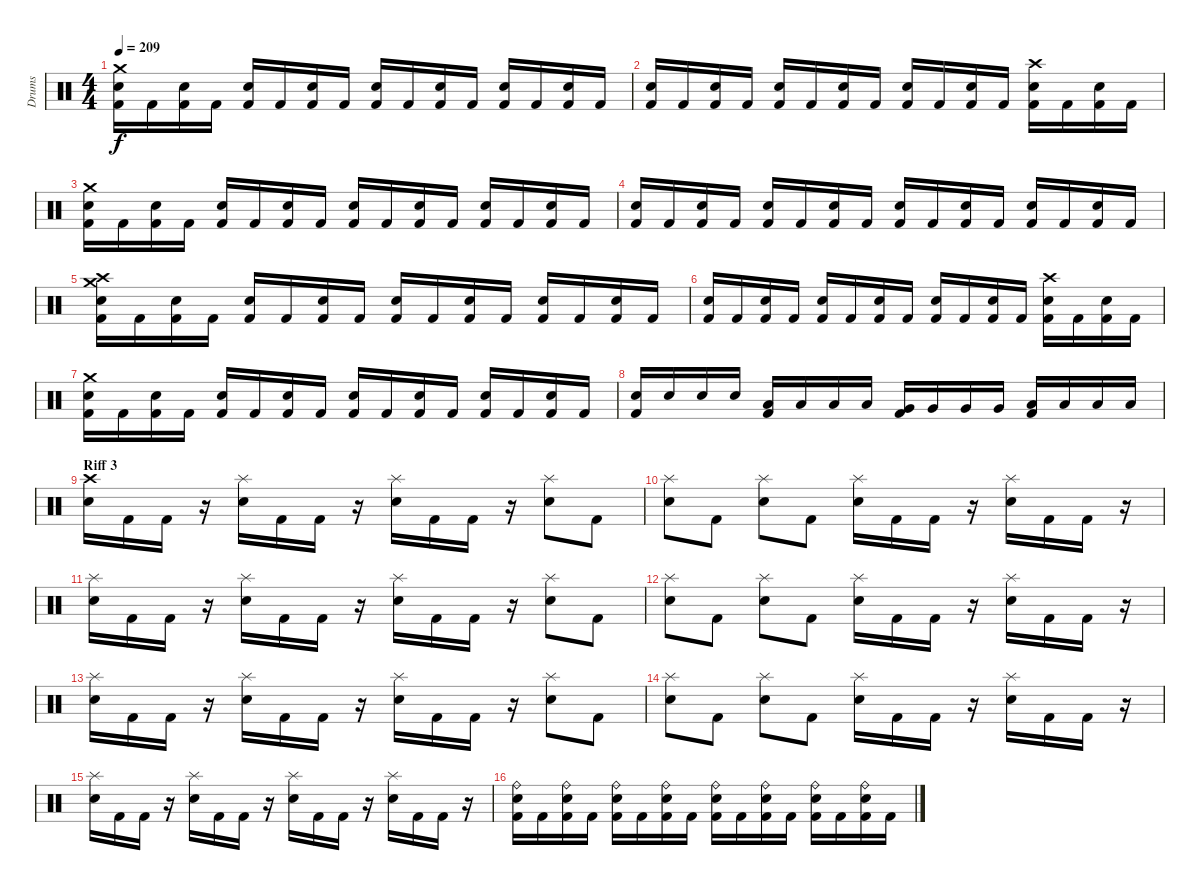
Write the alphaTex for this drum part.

\track ("Drums" "Drums") {instrument percussion}
\staff {score}
\articulation defaults
\ts (4 4)
\tempo 209
\clef neutral
\ks c
("Kick (hit) 2" "Snare (hit) 2" "Crash medium (hit)").16{dy f} "Kick (hit) 2".16 ("Kick (hit) 2" "Snare (hit) 2").16 "Kick (hit) 2".16 ("Kick (hit) 2" "Snare (hit) 2").16 "Kick (hit) 2".16 ("Kick (hit) 2" "Snare (hit) 2").16 "Kick (hit) 2".16 ("Kick (hit) 2" "Snare (hit) 2").16 "Kick (hit) 2".16 ("Kick (hit) 2" "Snare (hit) 2").16 "Kick (hit) 2".16 ("Kick (hit) 2" "Snare (hit) 2").16 "Kick (hit) 2".16 ("Kick (hit) 2" "Snare (hit) 2").16 "Kick (hit) 2".16 |
("Kick (hit) 2" "Snare (hit) 2").16 "Kick (hit) 2".16 ("Kick (hit) 2" "Snare (hit) 2").16 "Kick (hit) 2".16 ("Kick (hit) 2" "Snare (hit) 2").16 "Kick (hit) 2".16 ("Kick (hit) 2" "Snare (hit) 2").16 "Kick (hit) 2".16 ("Kick (hit) 2" "Snare (hit) 2").16 "Kick (hit) 2".16 ("Kick (hit) 2" "Snare (hit) 2").16 "Kick (hit) 2".16 ("Kick (hit) 2" "Snare (hit) 2" "Crash high (hit)").16 "Kick (hit) 2".16 ("Kick (hit) 2" "Snare (hit) 2").16 "Kick (hit) 2".16 |
("Kick (hit) 2" "Snare (hit) 2" "Crash medium (hit)").16 "Kick (hit) 2".16 ("Kick (hit) 2" "Snare (hit) 2").16 "Kick (hit) 2".16 ("Kick (hit) 2" "Snare (hit) 2").16 "Kick (hit) 2".16 ("Kick (hit) 2" "Snare (hit) 2").16 "Kick (hit) 2".16 ("Kick (hit) 2" "Snare (hit) 2").16 "Kick (hit) 2".16 ("Kick (hit) 2" "Snare (hit) 2").16 "Kick (hit) 2".16 ("Kick (hit) 2" "Snare (hit) 2").16 "Kick (hit) 2".16 ("Kick (hit) 2" "Snare (hit) 2").16 "Kick (hit) 2".16 |
("Kick (hit) 2" "Snare (hit) 2").16 "Kick (hit) 2".16 ("Kick (hit) 2" "Snare (hit) 2").16 "Kick (hit) 2".16 ("Kick (hit) 2" "Snare (hit) 2").16 "Kick (hit) 2".16 ("Kick (hit) 2" "Snare (hit) 2").16 "Kick (hit) 2".16 ("Kick (hit) 2" "Snare (hit) 2").16 "Kick (hit) 2".16 ("Kick (hit) 2" "Snare (hit) 2").16 "Kick (hit) 2".16 ("Kick (hit) 2" "Snare (hit) 2").16 "Kick (hit) 2".16 ("Kick (hit) 2" "Snare (hit) 2").16 "Kick (hit) 2".16 |
("Kick (hit) 2" "Snare (hit) 2" "Crash high (hit)" "Crash medium (hit)").16 "Kick (hit) 2".16 ("Kick (hit) 2" "Snare (hit) 2").16 "Kick (hit) 2".16 ("Kick (hit) 2" "Snare (hit) 2").16 "Kick (hit) 2".16 ("Kick (hit) 2" "Snare (hit) 2").16 "Kick (hit) 2".16 ("Kick (hit) 2" "Snare (hit) 2").16 "Kick (hit) 2".16 ("Kick (hit) 2" "Snare (hit) 2").16 "Kick (hit) 2".16 ("Kick (hit) 2" "Snare (hit) 2").16 "Kick (hit) 2".16 ("Kick (hit) 2" "Snare (hit) 2").16 "Kick (hit) 2".16 |
("Kick (hit) 2" "Snare (hit) 2").16 "Kick (hit) 2".16 ("Kick (hit) 2" "Snare (hit) 2").16 "Kick (hit) 2".16 ("Kick (hit) 2" "Snare (hit) 2").16 "Kick (hit) 2".16 ("Kick (hit) 2" "Snare (hit) 2").16 "Kick (hit) 2".16 ("Kick (hit) 2" "Snare (hit) 2").16 "Kick (hit) 2".16 ("Kick (hit) 2" "Snare (hit) 2").16 "Kick (hit) 2".16 ("Kick (hit) 2" "Snare (hit) 2" "Crash high (hit)").16 "Kick (hit) 2".16 ("Kick (hit) 2" "Snare (hit) 2").16 "Kick (hit) 2".16 |
("Kick (hit) 2" "Snare (hit) 2" "Crash medium (hit)").16 "Kick (hit) 2".16 ("Kick (hit) 2" "Snare (hit) 2").16 "Kick (hit) 2".16 ("Kick (hit) 2" "Snare (hit) 2").16 "Kick (hit) 2".16 ("Kick (hit) 2" "Snare (hit) 2").16 "Kick (hit) 2".16 ("Kick (hit) 2" "Snare (hit) 2").16 "Kick (hit) 2".16 ("Kick (hit) 2" "Snare (hit) 2").16 "Kick (hit) 2".16 ("Kick (hit) 2" "Snare (hit) 2").16 "Kick (hit) 2".16 ("Kick (hit) 2" "Snare (hit) 2").16 "Kick (hit) 2".16 |
("Kick (hit) 2" "Snare (hit) 2").16 "Snare (hit) 2".16 "Snare (hit) 2".16 "Snare (hit) 2".16 ("Kick (hit) 2" "Low Tom (hit)").16 "Low Tom (hit)".16 "Low Tom (hit)".16 "Low Tom (hit)".16 ("Kick (hit) 2" "Very Low Tom (hit)").16 "Very Low Tom (hit)".16 "Very Low Tom (hit)".16 "Very Low Tom (hit)".16 ("Kick (hit) 2" "Low Floor Tom (hit)").16 "Low Floor Tom (hit)".16 "Low Floor Tom (hit)".16 "Low Floor Tom (hit)".16 |
\section ("" "Riff 3")
("Snare (hit) 2" "Crash high (hit)").16 "Kick (hit) 2".16 "Kick (hit) 2".16 r.16 ("Snare (hit) 2" "Splash (hit)").16 "Kick (hit) 2".16 "Kick (hit) 2".16 r.16 ("Snare (hit) 2" "Splash (hit)").16 "Kick (hit) 2".16 "Kick (hit) 2".16 r.16 ("Snare (hit) 2" "Splash (hit)").8 "Kick (hit) 2".8 |
("Snare (hit) 2" "Splash (hit)").8 "Kick (hit) 2".8 ("Snare (hit) 2" "Splash (hit)").8 "Kick (hit) 2".8 ("Snare (hit) 2" "Splash (hit)").16 "Kick (hit) 2".16 "Kick (hit) 2".16 r.16 ("Snare (hit) 2" "Splash (hit)").16 "Kick (hit) 2".16 "Kick (hit) 2".16 r.16 |
("Snare (hit) 2" "Splash (hit)").16 "Kick (hit) 2".16 "Kick (hit) 2".16 r.16 ("Snare (hit) 2" "Splash (hit)").16 "Kick (hit) 2".16 "Kick (hit) 2".16 r.16 ("Snare (hit) 2" "Splash (hit)").16 "Kick (hit) 2".16 "Kick (hit) 2".16 r.16 ("Snare (hit) 2" "Splash (hit)").8 "Kick (hit) 2".8 |
("Snare (hit) 2" "Splash (hit)").8 "Kick (hit) 2".8 ("Snare (hit) 2" "Splash (hit)").8 "Kick (hit) 2".8 ("Snare (hit) 2" "Splash (hit)").16 "Kick (hit) 2".16 "Kick (hit) 2".16 r.16 ("Snare (hit) 2" "Splash (hit)").16 "Kick (hit) 2".16 "Kick (hit) 2".16 r.16 |
("Snare (hit) 2" "Splash (hit)").16 "Kick (hit) 2".16 "Kick (hit) 2".16 r.16 ("Snare (hit) 2" "Splash (hit)").16 "Kick (hit) 2".16 "Kick (hit) 2".16 r.16 ("Snare (hit) 2" "Splash (hit)").16 "Kick (hit) 2".16 "Kick (hit) 2".16 r.16 ("Snare (hit) 2" "Splash (hit)").8 "Kick (hit) 2".8 |
("Snare (hit) 2" "Splash (hit)").8 "Kick (hit) 2".8 ("Snare (hit) 2" "Splash (hit)").8 "Kick (hit) 2".8 ("Snare (hit) 2" "Splash (hit)").16 "Kick (hit) 2".16 "Kick (hit) 2".16 r.16 ("Snare (hit) 2" "Splash (hit)").16 "Kick (hit) 2".16 "Kick (hit) 2".16 r.16 |
("Snare (hit) 2" "Splash (hit)").16 "Kick (hit) 2".16 "Kick (hit) 2".16 r.16 ("Snare (hit) 2" "Splash (hit)").16 "Kick (hit) 2".16 "Kick (hit) 2".16 r.16 ("Snare (hit) 2" "Splash (hit)").16 "Kick (hit) 2".16 "Kick (hit) 2".16 r.16 ("Snare (hit) 2" "Splash (hit)").16 "Kick (hit) 2".16 "Kick (hit) 2".16 r.16 |
("Kick (hit) 2" "Snare (hit) 2" "Ride (bell)").16 "Kick (hit) 2".16 ("Kick (hit) 2" "Snare (hit) 2" "Ride (bell)").16 "Kick (hit) 2".16 ("Kick (hit) 2" "Snare (hit) 2" "Ride (bell)").16 "Kick (hit) 2".16 ("Kick (hit) 2" "Snare (hit) 2" "Ride (bell)").16 "Kick (hit) 2".16 ("Kick (hit) 2" "Snare (hit) 2" "Ride (bell)").16 "Kick (hit) 2".16 ("Kick (hit) 2" "Snare (hit) 2" "Ride (bell)").16 "Kick (hit) 2".16 ("Kick (hit) 2" "Snare (hit) 2" "Ride (bell)").16 "Kick (hit) 2".16 ("Kick (hit) 2" "Snare (hit) 2" "Ride (bell)").16 "Kick (hit) 2".16
